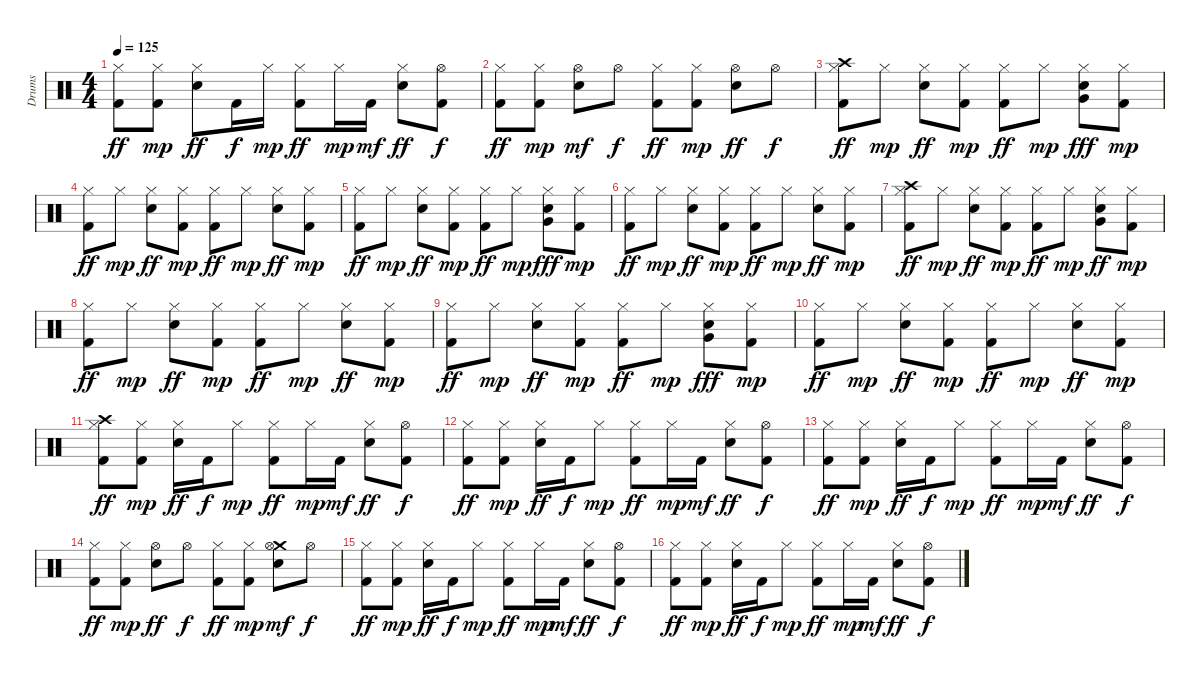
\track ("Drums" "Drums") {instrument percussion}
\staff {score}
\articulation defaults
\ts (4 4)
\tempo 125
\clef neutral
\ks c
("Hi-Hat (closed)" "Kick (hit) 2").8{dy ff} ("Hi-Hat (closed)" "Kick (hit) 2").8{dy mp} ("Snare (hit) 2" "Hi-Hat (closed)").8{dy ff} "Kick (hit) 2".16{dy f} "Hi-Hat (closed)".16{dy mp} ("Hi-Hat (closed)" "Kick (hit) 2").8{dy ff} "Hi-Hat (closed)".16{dy mp} "Kick (hit) 2".16{dy mf} ("Hi-Hat (closed)" "Snare (hit) 2").8{dy ff} ("Kick (hit) 2" "Hi-Hat (open)").8{dy f} |
("Hi-Hat (closed)" "Kick (hit) 2").8{dy ff} ("Kick (hit) 2" "Hi-Hat (closed)").8{dy mp} ("Snare (hit) 2" "Hi-Hat (open)").8{dy mf} "Hi-Hat (open)".8{dy f} ("Hi-Hat (closed)" "Kick (hit) 2").8{dy ff} ("Kick (hit) 2" "Hi-Hat (closed)").8{dy mp} ("Hi-Hat (open)" "Snare (hit) 2").8{dy ff} "Hi-Hat (open)".8{dy f} |
("Kick (hit) 2" "Crash high (hit)" "Hi-Hat (closed)").8{dy ff} "Hi-Hat (closed)".8{dy mp} ("Snare (hit) 2" "Hi-Hat (closed)").8{dy ff} ("Hi-Hat (closed)" "Kick (hit) 2").8{dy mp} ("Hi-Hat (closed)" "Kick (hit) 2").8{dy ff} "Hi-Hat (closed)".8{dy mp} ("Snare (hit) 2" "Very Low Tom (hit)" "Hi-Hat (closed)").8{dy fff} ("Hi-Hat (closed)" "Kick (hit) 2").8{dy mp} |
("Hi-Hat (closed)" "Kick (hit) 2").8{dy ff} "Hi-Hat (closed)".8{dy mp} ("Hi-Hat (closed)" "Snare (hit) 2").8{dy ff} ("Hi-Hat (closed)" "Kick (hit) 2").8{dy mp} ("Kick (hit) 2" "Hi-Hat (closed)").8{dy ff} "Hi-Hat (closed)".8{dy mp} ("Snare (hit) 2" "Hi-Hat (closed)").8{dy ff} ("Hi-Hat (closed)" "Kick (hit) 2").8{dy mp} |
("Hi-Hat (closed)" "Kick (hit) 2").8{dy ff} "Hi-Hat (closed)".8{dy mp} ("Hi-Hat (closed)" "Snare (hit) 2").8{dy ff} ("Hi-Hat (closed)" "Kick (hit) 2").8{dy mp} ("Hi-Hat (closed)" "Kick (hit) 2").8{dy ff} "Hi-Hat (closed)".8{dy mp} ("Snare (hit) 2" "Hi-Hat (closed)" "Very Low Tom (hit)").8{dy fff} ("Hi-Hat (closed)" "Kick (hit) 2").8{dy mp} |
("Kick (hit) 2" "Hi-Hat (closed)").8{dy ff} "Hi-Hat (closed)".8{dy mp} ("Hi-Hat (closed)" "Snare (hit) 2").8{dy ff} ("Hi-Hat (closed)" "Kick (hit) 2").8{dy mp} ("Hi-Hat (closed)" "Kick (hit) 2").8{dy ff} "Hi-Hat (closed)".8{dy mp} ("Hi-Hat (closed)" "Snare (hit) 2").8{dy ff} ("Kick (hit) 2" "Hi-Hat (closed)").8{dy mp} |
("Crash high (hit)" "Hi-Hat (closed)" "Kick (hit) 2").8{dy ff} "Hi-Hat (closed)".8{dy mp} ("Snare (hit) 2" "Hi-Hat (closed)").8{dy ff} ("Hi-Hat (closed)" "Kick (hit) 2").8{dy mp} ("Kick (hit) 2" "Hi-Hat (closed)").8{dy ff} "Hi-Hat (closed)".8{dy mp} ("Very Low Tom (hit)" "Hi-Hat (closed)" "Snare (hit) 2").8{dy ff} ("Kick (hit) 2" "Hi-Hat (closed)").8{dy mp} |
("Hi-Hat (closed)" "Kick (hit) 2").8{dy ff} "Hi-Hat (closed)".8{dy mp} ("Hi-Hat (closed)" "Snare (hit) 2").8{dy ff} ("Kick (hit) 2" "Hi-Hat (closed)").8{dy mp} ("Hi-Hat (closed)" "Kick (hit) 2").8{dy ff} "Hi-Hat (closed)".8{dy mp} ("Snare (hit) 2" "Hi-Hat (closed)").8{dy ff} ("Hi-Hat (closed)" "Kick (hit) 2").8{dy mp} |
("Hi-Hat (closed)" "Kick (hit) 2").8{dy ff} "Hi-Hat (closed)".8{dy mp} ("Snare (hit) 2" "Hi-Hat (closed)").8{dy ff} ("Kick (hit) 2" "Hi-Hat (closed)").8{dy mp} ("Hi-Hat (closed)" "Kick (hit) 2").8{dy ff} "Hi-Hat (closed)".8{dy mp} ("Snare (hit) 2" "Hi-Hat (closed)" "Very Low Tom (hit)").8{dy fff} ("Kick (hit) 2" "Hi-Hat (closed)").8{dy mp} |
("Kick (hit) 2" "Hi-Hat (closed)").8{dy ff} "Hi-Hat (closed)".8{dy mp} ("Hi-Hat (closed)" "Snare (hit) 2").8{dy ff} ("Hi-Hat (closed)" "Kick (hit) 2").8{dy mp} ("Kick (hit) 2" "Hi-Hat (closed)").8{dy ff} "Hi-Hat (closed)".8{dy mp} ("Snare (hit) 2" "Hi-Hat (closed)").8{dy ff} ("Kick (hit) 2" "Hi-Hat (closed)").8{dy mp} |
("Hi-Hat (closed)" "Kick (hit) 2" "Crash high (hit)").8{dy ff} ("Kick (hit) 2" "Hi-Hat (closed)").8{dy mp} ("Snare (hit) 2" "Hi-Hat (closed)").16{dy ff} "Kick (hit) 2".16{dy f} "Hi-Hat (closed)".8{dy mp} ("Hi-Hat (closed)" "Kick (hit) 2").8{dy ff} "Hi-Hat (closed)".16{dy mp} "Kick (hit) 2".16{dy mf} ("Snare (hit) 2" "Hi-Hat (closed)").8{dy ff} ("Hi-Hat (open)" "Kick (hit) 2").8{dy f} |
("Hi-Hat (closed)" "Kick (hit) 2").8{dy ff} ("Kick (hit) 2" "Hi-Hat (closed)").8{dy mp} ("Hi-Hat (closed)" "Snare (hit) 2").16{dy ff} "Kick (hit) 2".16{dy f} "Hi-Hat (closed)".8{dy mp} ("Hi-Hat (closed)" "Kick (hit) 2").8{dy ff} "Hi-Hat (closed)".16{dy mp} "Kick (hit) 2".16{dy mf} ("Hi-Hat (closed)" "Snare (hit) 2").8{dy ff} ("Hi-Hat (open)" "Kick (hit) 2").8{dy f} |
("Kick (hit) 2" "Hi-Hat (closed)").8{dy ff} ("Kick (hit) 2" "Hi-Hat (closed)").8{dy mp} ("Snare (hit) 2" "Hi-Hat (closed)").16{dy ff} "Kick (hit) 2".16{dy f} "Hi-Hat (closed)".8{dy mp} ("Kick (hit) 2" "Hi-Hat (closed)").8{dy ff} "Hi-Hat (closed)".16{dy mp} "Kick (hit) 2".16{dy mf} ("Hi-Hat (closed)" "Snare (hit) 2").8{dy ff} ("Hi-Hat (open)" "Kick (hit) 2").8{dy f} |
("Hi-Hat (closed)" "Kick (hit) 2").8{dy ff} ("Kick (hit) 2" "Hi-Hat (closed)").8{dy mp} ("Hi-Hat (open)" "Snare (hit) 2").8{dy ff} "Hi-Hat (open)".8{dy f} ("Kick (hit) 2" "Hi-Hat (closed)").8{dy ff} ("Kick (hit) 2" "Hi-Hat (closed)").8{dy mp} ("Snare (hit) 2" "Crash medium (hit)" "Hi-Hat (open)").8{dy mf} "Hi-Hat (open)".8{dy f} |
("Kick (hit) 2" "Hi-Hat (closed)").8{dy ff} ("Kick (hit) 2" "Hi-Hat (closed)").8{dy mp} ("Hi-Hat (closed)" "Snare (hit) 2").16{dy ff} "Kick (hit) 2".16{dy f} "Hi-Hat (closed)".8{dy mp} ("Kick (hit) 2" "Hi-Hat (closed)").8{dy ff} "Hi-Hat (closed)".16{dy mp} "Kick (hit) 2".16{dy mf} ("Hi-Hat (closed)" "Snare (hit) 2").8{dy ff} ("Kick (hit) 2" "Hi-Hat (open)").8{dy f} |
("Kick (hit) 2" "Hi-Hat (closed)").8{dy ff} ("Hi-Hat (closed)" "Kick (hit) 2").8{dy mp} ("Hi-Hat (closed)" "Snare (hit) 2").16{dy ff} "Kick (hit) 2".16{dy f} "Hi-Hat (closed)".8{dy mp} ("Hi-Hat (closed)" "Kick (hit) 2").8{dy ff} "Hi-Hat (closed)".16{dy mp} "Kick (hit) 2".16{dy mf} ("Hi-Hat (closed)" "Snare (hit) 2").8{dy ff} ("Kick (hit) 2" "Hi-Hat (open)").8{dy f}
